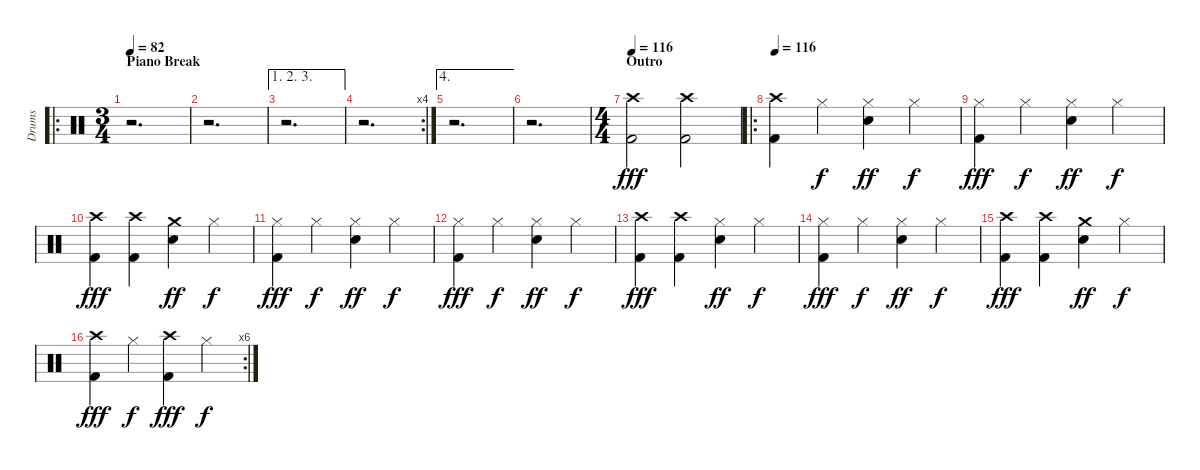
\track ("Drums" "Drums") {instrument percussion}
\staff {score}
\articulation defaults
\ro
\ts (3 4)
\section ("" "Piano Break")
\tempo 82
\clef neutral
\ks c
r.2{d dy f} |
r.2{d} |
\ae (1 2 3)
r.2{d} |
\rc 4
r.2{d} |
\ae 4
r.2{d} |
r.2{d} |
\ts (4 4)
\section ("" "Outro")
\tempo 116
("Crash high (hit)" "Kick (hit) 2").2{dy fff} ("Crash high (hit)" "Kick (hit) 2").2 |
\ro
\tempo 116
("Crash high (hit)" "Kick (hit) 2").4 "Hi-Hat (closed)".4{dy f} ("Hi-Hat (closed)" "Electric Snare (hit)").4{dy ff} "Hi-Hat (closed)".4{dy f} |
("Hi-Hat (closed)" "Kick (hit) 2").4{dy fff} "Hi-Hat (closed)".4{dy f} ("Hi-Hat (closed)" "Electric Snare (hit)").4{dy ff} "Hi-Hat (closed)".4{dy f} |
("Crash high (hit)" "Kick (hit) 2").4{dy fff} ("Crash high (hit)" "Kick (hit) 2").4 ("Crash medium (hit)" "Electric Snare (hit)").4{dy ff} "Hi-Hat (closed)".4{dy f} |
("Hi-Hat (closed)" "Kick (hit) 2").4{dy fff} "Hi-Hat (closed)".4{dy f} ("Hi-Hat (closed)" "Electric Snare (hit)").4{dy ff} "Hi-Hat (closed)".4{dy f} |
("Hi-Hat (closed)" "Kick (hit) 2").4{dy fff} "Hi-Hat (closed)".4{dy f} ("Hi-Hat (closed)" "Electric Snare (hit)").4{dy ff} "Hi-Hat (closed)".4{dy f} |
("Crash high (hit)" "Kick (hit) 2").4{dy fff} ("Crash high (hit)" "Kick (hit) 2").4 ("Hi-Hat (closed)" "Electric Snare (hit)").4{dy ff} "Hi-Hat (closed)".4{dy f} |
("Hi-Hat (closed)" "Kick (hit) 2").4{dy fff} "Hi-Hat (closed)".4{dy f} ("Hi-Hat (closed)" "Electric Snare (hit)").4{dy ff} "Hi-Hat (closed)".4{dy f} |
("Crash high (hit)" "Kick (hit) 2").4{dy fff} ("Crash high (hit)" "Kick (hit) 2").4 ("Crash medium (hit)" "Electric Snare (hit)").4{dy ff} "Hi-Hat (closed)".4{dy f} |
\rc 6
("Crash high (hit)" "Kick (hit) 2").4{dy fff} "Hi-Hat (closed)".4{dy f} ("Crash high (hit)" "Kick (hit) 2").4{dy fff} "Hi-Hat (closed)".4{dy f}
